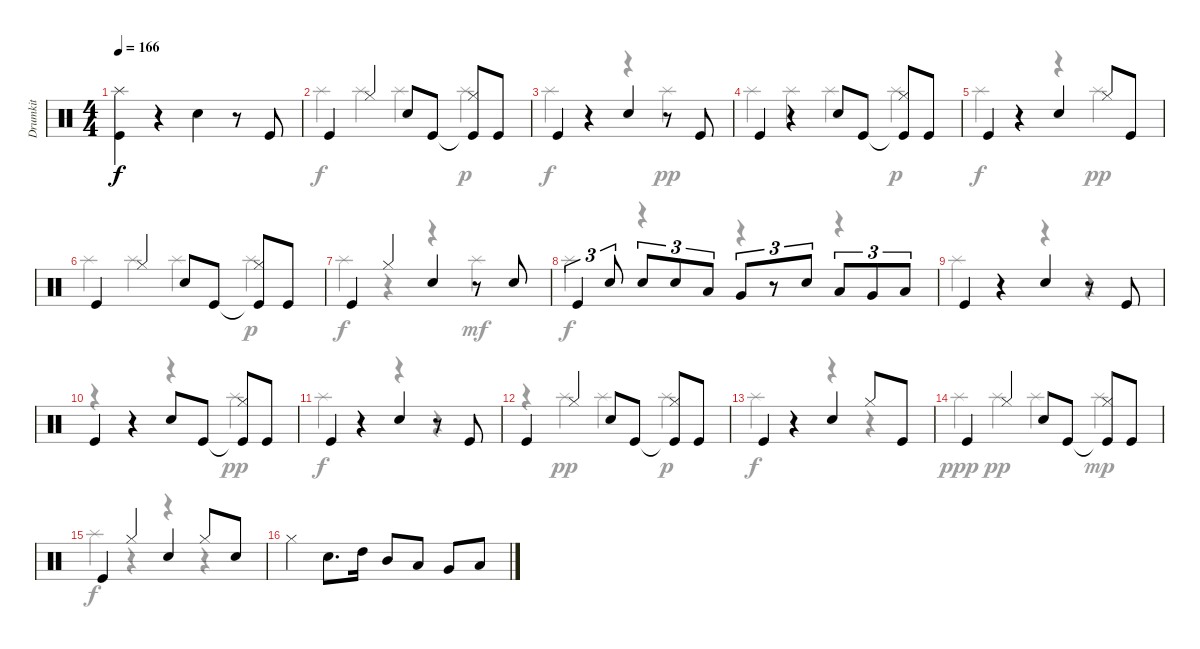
\track ("Drumkit" "Drumkit") {instrument percussion}
\staff {score}
\articulation defaults
\voice
\ts (4 4)
\tempo 166
\clef neutral
\ks c
("Kick (hit)" "Splash (hit)").4{dy f} r.4 "Snare (hit) 2".4 r.8 "Kick (hit)".8 |
"Kick (hit)".4 "Hi-Hat (closed)".4 "Snare (hit) 2".8 "Kick (hit)".8 ("Kick (hit)"{t} "Hi-Hat (closed)").8 "Kick (hit)".8 |
"Kick (hit)".4 r.4 "Snare (hit) 2".4 r.8 "Kick (hit)".8 |
"Kick (hit)".4 r.4 "Snare (hit) 2".8 "Kick (hit)".8 ("Kick (hit)"{t} "Hi-Hat (closed)").8 "Kick (hit)".8 |
"Kick (hit)".4 r.4 "Snare (hit) 2".4 "Hi-Hat (closed)".8 "Kick (hit)".8 |
"Kick (hit)".4 "Hi-Hat (closed)".4 "Snare (hit) 2".8 "Kick (hit)".8 ("Kick (hit)"{t} "Hi-Hat (closed)").8 "Kick (hit)".8 |
"Kick (hit)".4 "Hi-Hat (closed)".4 "Snare (hit) 2".4 r.8 "Snare (hit) 2".8 |
"Kick (hit)".4{tu (3 2)} "Snare (hit) 2".8{tu (3 2)} "Snare (hit) 2".8{tu (3 2)} "Snare (hit) 2".8{tu (3 2)} "Low Tom (hit)".8{tu (3 2)} "Very Low Tom (hit)".8{tu (3 2)} r.8{tu (3 2)} "Snare (hit) 2".8{tu (3 2)} "Low Tom (hit)".8{tu (3 2)} "Very Low Tom (hit)".8{tu (3 2)} "Low Floor Tom (hit)".8{tu (3 2)} |
"Kick (hit)".4 r.4 "Snare (hit) 2".4 r.8 "Kick (hit)".8 |
"Kick (hit)".4 r.4 "Snare (hit) 2".8 "Kick (hit)".8 ("Kick (hit)"{t} "Hi-Hat (closed)").8 "Kick (hit)".8 |
"Kick (hit)".4 r.4 "Snare (hit) 2".4 r.8 "Kick (hit)".8 |
"Kick (hit)".4 "Hi-Hat (closed)".4 "Snare (hit) 2".8 "Kick (hit)".8 ("Kick (hit)"{t} "Hi-Hat (closed)").8 "Kick (hit)".8 |
"Kick (hit)".4 r.4 "Snare (hit) 2".4 "Hi-Hat (closed)".8 "Kick (hit)".8 |
"Kick (hit)".4 "Hi-Hat (closed)".4 "Snare (hit) 2".8 "Kick (hit)".8 ("Kick (hit)"{t} "Hi-Hat (closed)").8 "Kick (hit)".8 |
"Kick (hit)".4 "Hi-Hat (closed)".4 "Snare (hit) 2".4 "Hi-Hat (closed)".8 "Snare (hit) 2".8 |
"Hi-Hat (closed)".4 "Snare (hit) 2".8{d} "High Tom (hit)".16 "Mid Tom (hit)".8 "Low Tom (hit)".8 "Very Low Tom (hit)".8 "Low Floor Tom (hit)".8
\voice
\clef neutral
\ottava regular
\simile none
\ks c
|
"Splash (hit)".4 "Splash (hit)".4 "Splash (hit)".4 "Splash (hit)".4{dy p} |
"Splash (hit)".4{dy f} r.4 r.4 "Splash (hit)".4{dy pp} |
"Splash (hit)".4 "Splash (hit)".4 "Splash (hit)".4 "Splash (hit)".4{dy p} |
"Splash (hit)".4{dy f} r.4 r.4 "Splash (hit)".4{dy pp} |
"Splash (hit)".4 "Splash (hit)".4 "Splash (hit)".4 "Splash (hit)".4{dy p} |
"Splash (hit)".4{dy f} r.4 r.4 "Splash (hit)".4{dy mf} |
"Splash (hit)".4{dy f} r.4 r.4 r.4 |
"Splash (hit)".4 r.4 r.4 r.4 |
r.4 r.4 r.4 "Splash (hit)".4{dy pp} |
"Splash (hit)".4{dy f} r.4 r.4 r.4 |
r.4 "Splash (hit)".4{dy pp} "Splash (hit)".4 "Splash (hit)".4{dy p} |
"Splash (hit)".4{dy f} r.4 r.4 r.4 |
"Splash (hit)".4{dy ppp} "Splash (hit)".4{dy pp} "Splash (hit)".4 "Splash (hit)".4{dy mp} |
"Splash (hit)".4{dy f} r.4 r.4 r.4 |
